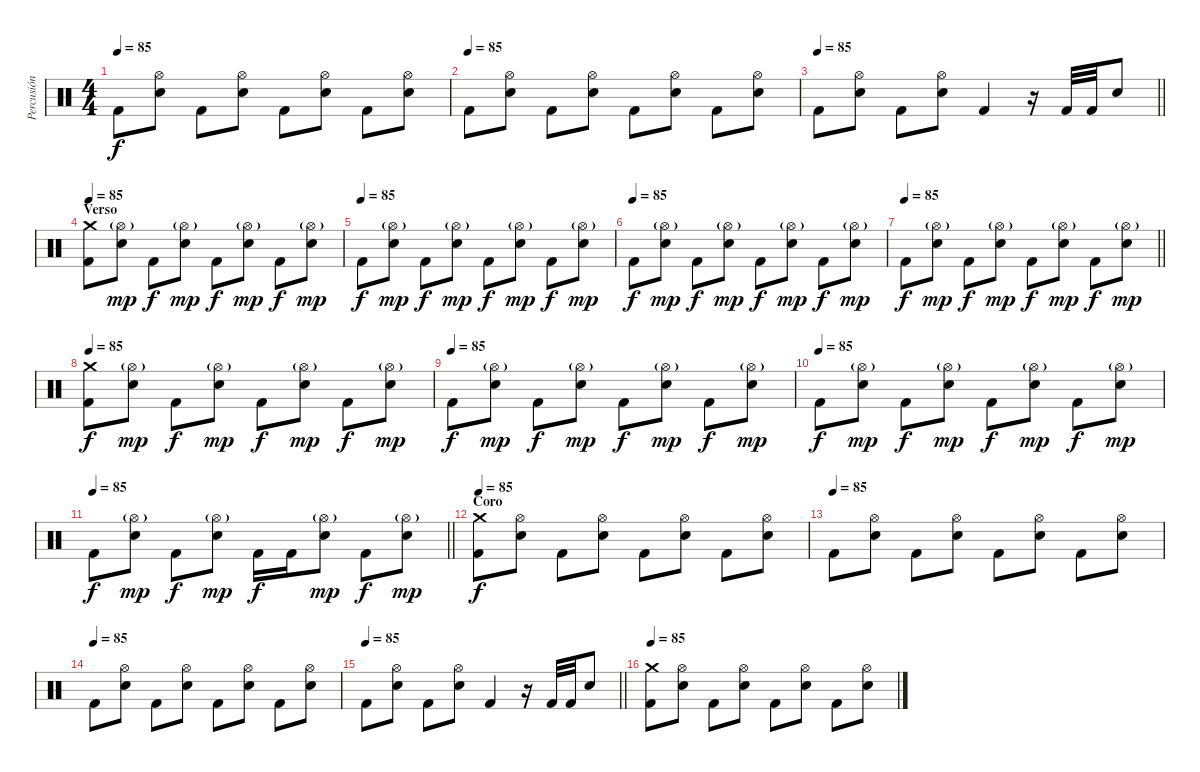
\track ("Percusión" "Percusión") {instrument percussion}
\staff {score}
\articulation defaults
\ts (4 4)
\tempo 85
\clef neutral
\ks c "Kick (hit) 2".8{dy f}
("Hi-Hat (open)" "Electric Snare (hit)").8 "Kick (hit) 2".8 ("Hi-Hat (open)" "Electric Snare (hit)").8 "Kick (hit) 2".8 ("Hi-Hat (open)" "Electric Snare (hit)").8 "Kick (hit) 2".8 ("Hi-Hat (open)" "Electric Snare (hit)").8 |
\tempo (85)
"Kick (hit) 2".8 ("Hi-Hat (open)" "Electric Snare (hit)").8 "Kick (hit) 2".8 ("Hi-Hat (open)" "Electric Snare (hit)").8 "Kick (hit) 2".8 ("Hi-Hat (open)" "Electric Snare (hit)").8 "Kick (hit) 2".8 ("Hi-Hat (open)" "Electric Snare (hit)").8 |
\tempo 85
\barLineRight lightlight "Kick (hit) 2".8
("Hi-Hat (open)" "Electric Snare (hit)").8 "Kick (hit) 2".8 ("Hi-Hat (open)" "Electric Snare (hit)").8 "Kick (hit) 2".4 r.16 "Kick (hit) 2".32 "Kick (hit) 2".32 "Electric Snare (hit)".8 |
\section ("" "Verso")
\tempo 85
("Crash medium (hit)" "Kick (hit) 2").8 ("Hi-Hat (open)"{g} "Electric Snare (hit)").8{dy mp} "Kick (hit) 2".8{dy f} ("Hi-Hat (open)"{g} "Electric Snare (hit)").8{dy mp} "Kick (hit) 2".8{dy f} ("Hi-Hat (open)"{g} "Electric Snare (hit)").8{dy mp} "Kick (hit) 2".8{dy f} ("Hi-Hat (open)"{g} "Electric Snare (hit)").8{dy mp} |
\tempo (85)
"Kick (hit) 2".8{dy f} ("Hi-Hat (open)"{g} "Electric Snare (hit)").8{dy mp} "Kick (hit) 2".8{dy f} ("Hi-Hat (open)"{g} "Electric Snare (hit)").8{dy mp} "Kick (hit) 2".8{dy f} ("Hi-Hat (open)"{g} "Electric Snare (hit)").8{dy mp} "Kick (hit) 2".8{dy f} ("Hi-Hat (open)"{g} "Electric Snare (hit)").8{dy mp} |
\tempo (85)
"Kick (hit) 2".8{dy f} ("Hi-Hat (open)"{g} "Electric Snare (hit)").8{dy mp} "Kick (hit) 2".8{dy f} ("Hi-Hat (open)"{g} "Electric Snare (hit)").8{dy mp} "Kick (hit) 2".8{dy f} ("Hi-Hat (open)"{g} "Electric Snare (hit)").8{dy mp} "Kick (hit) 2".8{dy f} ("Hi-Hat (open)"{g} "Electric Snare (hit)").8{dy mp} |
\tempo 90
\tempo 85
\barLineRight lightlight "Kick (hit) 2".8{dy f}
("Hi-Hat (open)"{g} "Electric Snare (hit)").8{dy mp} "Kick (hit) 2".8{dy f} ("Hi-Hat (open)"{g} "Electric Snare (hit)").8{dy mp} "Kick (hit) 2".8{dy f} ("Hi-Hat (open)"{g} "Electric Snare (hit)").8{dy mp} "Kick (hit) 2".8{dy f} ("Hi-Hat (open)"{g} "Electric Snare (hit)").8{dy mp} |
\section ("" "")
\tempo 85
("Crash medium (hit)" "Kick (hit) 2").8{dy f} ("Hi-Hat (open)"{g} "Electric Snare (hit)").8{dy mp} "Kick (hit) 2".8{dy f} ("Hi-Hat (open)"{g} "Electric Snare (hit)").8{dy mp} "Kick (hit) 2".8{dy f} ("Hi-Hat (open)"{g} "Electric Snare (hit)").8{dy mp} "Kick (hit) 2".8{dy f} ("Hi-Hat (open)"{g} "Electric Snare (hit)").8{dy mp} |
\tempo (85)
"Kick (hit) 2".8{dy f} ("Hi-Hat (open)"{g} "Electric Snare (hit)").8{dy mp} "Kick (hit) 2".8{dy f} ("Hi-Hat (open)"{g} "Electric Snare (hit)").8{dy mp} "Kick (hit) 2".8{dy f} ("Hi-Hat (open)"{g} "Electric Snare (hit)").8{dy mp} "Kick (hit) 2".8{dy f} ("Hi-Hat (open)"{g} "Electric Snare (hit)").8{dy mp} |
\tempo (85)
"Kick (hit) 2".8{dy f} ("Hi-Hat (open)"{g} "Electric Snare (hit)").8{dy mp} "Kick (hit) 2".8{dy f} ("Hi-Hat (open)"{g} "Electric Snare (hit)").8{dy mp} "Kick (hit) 2".8{dy f} ("Hi-Hat (open)"{g} "Electric Snare (hit)").8{dy mp} "Kick (hit) 2".8{dy f} ("Hi-Hat (open)"{g} "Electric Snare (hit)").8{dy mp} |
\tempo 90
\tempo 85
\barLineRight lightlight "Kick (hit) 2".8{dy f}
("Hi-Hat (open)"{g} "Electric Snare (hit)").8{dy mp} "Kick (hit) 2".8{dy f} ("Hi-Hat (open)"{g} "Electric Snare (hit)").8{dy mp} "Kick (hit) 2".16{dy f} "Kick (hit) 2".16 ("Hi-Hat (open)"{g} "Electric Snare (hit)").8{dy mp} "Kick (hit) 2".8{dy f} ("Hi-Hat (open)"{g} "Electric Snare (hit)").8{dy mp} |
\section ("" "Coro")
\tempo 85
("Crash medium (hit)" "Kick (hit) 2").8{dy f} ("Hi-Hat (open)" "Electric Snare (hit)").8 "Kick (hit) 2".8 ("Hi-Hat (open)" "Electric Snare (hit)").8 "Kick (hit) 2".8 ("Hi-Hat (open)" "Electric Snare (hit)").8 "Kick (hit) 2".8 ("Hi-Hat (open)" "Electric Snare (hit)").8 |
\tempo (85)
"Kick (hit) 2".8 ("Hi-Hat (open)" "Electric Snare (hit)").8 "Kick (hit) 2".8 ("Hi-Hat (open)" "Electric Snare (hit)").8 "Kick (hit) 2".8 ("Hi-Hat (open)" "Electric Snare (hit)").8 "Kick (hit) 2".8 ("Hi-Hat (open)" "Electric Snare (hit)").8 |
\tempo (85)
"Kick (hit) 2".8 ("Hi-Hat (open)" "Electric Snare (hit)").8 "Kick (hit) 2".8 ("Hi-Hat (open)" "Electric Snare (hit)").8 "Kick (hit) 2".8 ("Hi-Hat (open)" "Electric Snare (hit)").8 "Kick (hit) 2".8 ("Hi-Hat (open)" "Electric Snare (hit)").8 |
\tempo 85
\barLineRight lightlight "Kick (hit) 2".8
("Hi-Hat (open)" "Electric Snare (hit)").8 "Kick (hit) 2".8 ("Hi-Hat (open)" "Electric Snare (hit)").8 "Kick (hit) 2".4 r.16 "Kick (hit) 2".32 "Kick (hit) 2".32 "Electric Snare (hit)".8 |
\section ("" "")
\tempo 85
("Crash medium (hit)" "Kick (hit) 2").8 ("Hi-Hat (open)" "Electric Snare (hit)").8 "Kick (hit) 2".8 ("Hi-Hat (open)" "Electric Snare (hit)").8 "Kick (hit) 2".8 ("Hi-Hat (open)" "Electric Snare (hit)").8 "Kick (hit) 2".8 ("Hi-Hat (open)" "Electric Snare (hit)").8
